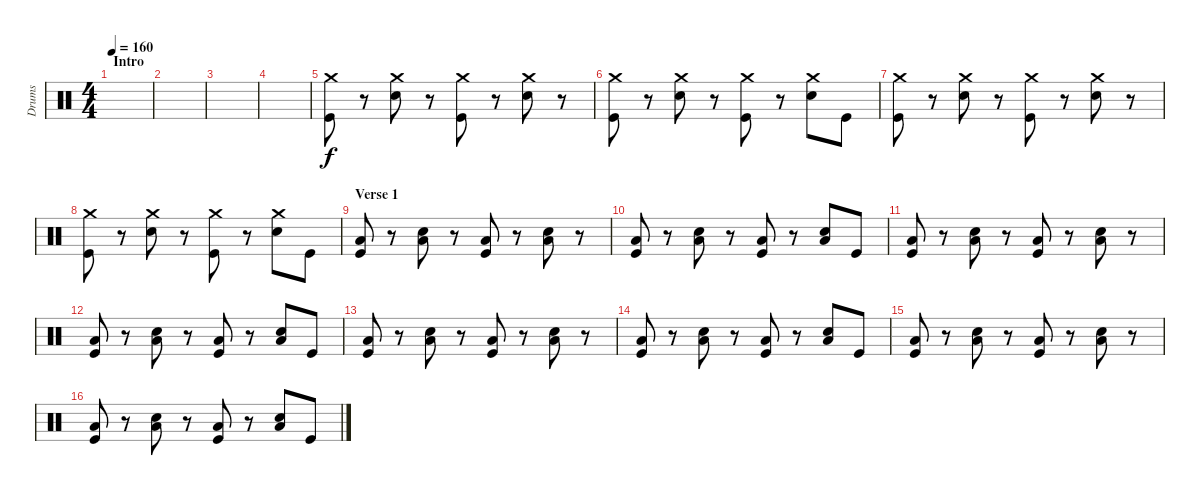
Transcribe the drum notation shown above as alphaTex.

\track ("Drums" "Drums") {instrument percussion}
\staff {score}
\articulation defaults
\ts (4 4)
\section ("" "Intro")
\tempo 160
\clef neutral
\ks c
|
|
|
|
("Crash medium (hit)" "Kick (hit)").8 r.8 ("Crash medium (hit)" "Electric Snare (hit)").8 r.8 ("Crash medium (hit)" "Kick (hit)").8 r.8 ("Crash medium (hit)" "Electric Snare (hit)").8 r.8 |
("Crash medium (hit)" "Kick (hit)").8 r.8 ("Crash medium (hit)" "Electric Snare (hit)").8 r.8 ("Crash medium (hit)" "Kick (hit)").8 r.8 ("Crash medium (hit)" "Electric Snare (hit)").8 "Kick (hit)".8 |
("Crash medium (hit)" "Kick (hit)").8 r.8 ("Crash medium (hit)" "Electric Snare (hit)").8 r.8 ("Crash medium (hit)" "Kick (hit)").8 r.8 ("Crash medium (hit)" "Electric Snare (hit)").8 r.8 |
("Crash medium (hit)" "Kick (hit)").8 r.8 ("Crash medium (hit)" "Electric Snare (hit)").8 r.8 ("Crash medium (hit)" "Kick (hit)").8 r.8 ("Crash medium (hit)" "Electric Snare (hit)").8 "Kick (hit)".8 |
\section ("" "Verse 1")
("Low Tom (hit)" "Kick (hit)").8 r.8 ("Low Tom (hit)" "Electric Snare (hit)").8 r.8 ("Low Tom (hit)" "Kick (hit)").8 r.8 ("Low Tom (hit)" "Electric Snare (hit)").8 r.8 |
("Low Tom (hit)" "Kick (hit)").8 r.8 ("Low Tom (hit)" "Electric Snare (hit)").8 r.8 ("Low Tom (hit)" "Kick (hit)").8 r.8 ("Low Tom (hit)" "Electric Snare (hit)").8 "Kick (hit)".8 |
("Low Tom (hit)" "Kick (hit)").8 r.8 ("Low Tom (hit)" "Electric Snare (hit)").8 r.8 ("Low Tom (hit)" "Kick (hit)").8 r.8 ("Low Tom (hit)" "Electric Snare (hit)").8 r.8 |
("Low Tom (hit)" "Kick (hit)").8 r.8 ("Low Tom (hit)" "Electric Snare (hit)").8 r.8 ("Low Tom (hit)" "Kick (hit)").8 r.8 ("Low Tom (hit)" "Electric Snare (hit)").8 "Kick (hit)".8 |
("Low Tom (hit)" "Kick (hit)").8 r.8 ("Low Tom (hit)" "Electric Snare (hit)").8 r.8 ("Low Tom (hit)" "Kick (hit)").8 r.8 ("Low Tom (hit)" "Electric Snare (hit)").8 r.8 |
("Low Tom (hit)" "Kick (hit)").8 r.8 ("Low Tom (hit)" "Electric Snare (hit)").8 r.8 ("Low Tom (hit)" "Kick (hit)").8 r.8 ("Low Tom (hit)" "Electric Snare (hit)").8 "Kick (hit)".8 |
("Low Tom (hit)" "Kick (hit)").8 r.8 ("Low Tom (hit)" "Electric Snare (hit)").8 r.8 ("Low Tom (hit)" "Kick (hit)").8 r.8 ("Low Tom (hit)" "Electric Snare (hit)").8 r.8 |
("Low Tom (hit)" "Kick (hit)").8 r.8 ("Low Tom (hit)" "Electric Snare (hit)").8 r.8 ("Low Tom (hit)" "Kick (hit)").8 r.8 ("Low Tom (hit)" "Electric Snare (hit)").8 "Kick (hit)".8
